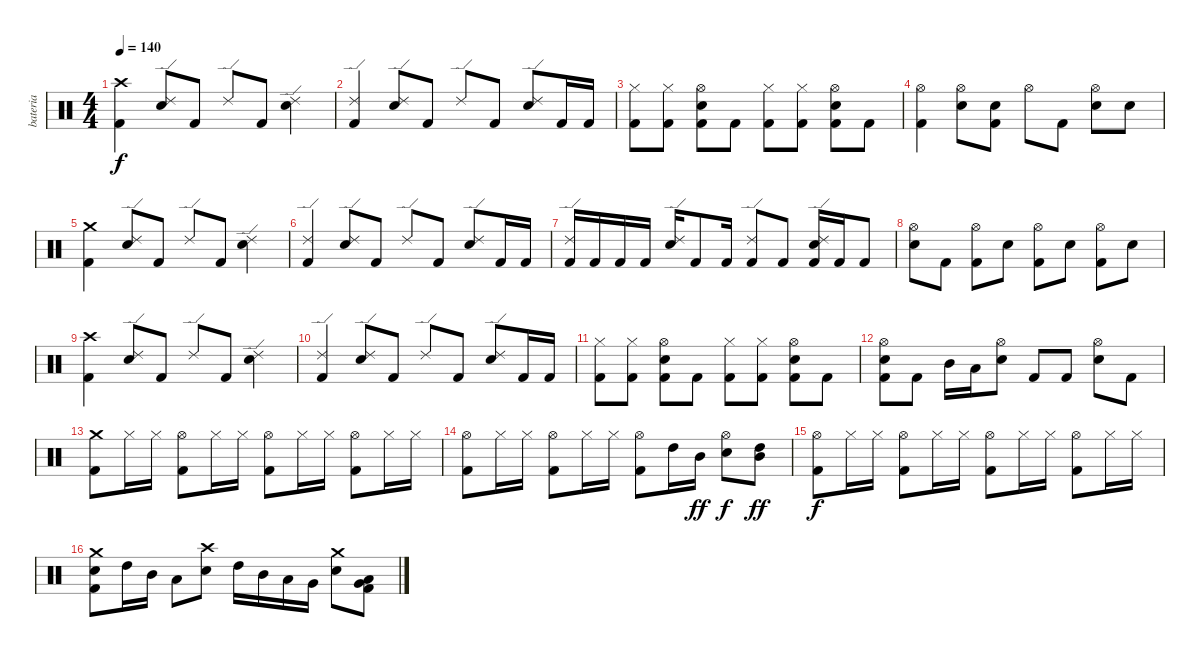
\track ("bateria" "bateria") {instrument percussion}
\staff {score}
\articulation defaults
\ts (4 4)
\tempo 140
\clef neutral
\ks c
("Crash high (hit)" "Kick (hit) 2").4{dy f} ("Ride (edge) 2" "Electric Snare (hit)").8 "Kick (hit) 2".8 "Ride (edge) 2".8 "Kick (hit) 2".8 ("Ride (edge) 2" "Electric Snare (hit)").4 |
("Ride (edge) 2" "Kick (hit) 2").4 ("Ride (edge) 2" "Electric Snare (hit)").8 "Kick (hit) 2".8 "Ride (edge) 2".8 "Kick (hit) 2".8 ("Ride (edge) 2" "Electric Snare (hit)").8 "Kick (hit) 2".16 "Kick (hit) 2".16 |
("Hi-Hat (closed)" "Kick (hit) 2").8 ("Hi-Hat (closed)" "Kick (hit) 2").8 ("Hi-Hat (open)" "Electric Snare (hit)" "Kick (hit) 2").8 "Kick (hit) 2".8 ("Hi-Hat (closed)" "Kick (hit) 2").8 ("Hi-Hat (closed)" "Kick (hit) 2").8 ("Hi-Hat (open)" "Electric Snare (hit)" "Kick (hit) 2").8 "Kick (hit) 2".8 |
("Hi-Hat (open)" "Kick (hit) 2").4 ("Hi-Hat (open)" "Electric Snare (hit)").8 ("Electric Snare (hit)" "Kick (hit) 2").8 "Hi-Hat (open)".8 "Kick (hit) 2".8 ("Hi-Hat (open)" "Electric Snare (hit)").8 "Electric Snare (hit)".8 |
("Crash medium (hit)" "Kick (hit) 2").4 ("Ride (edge) 2" "Electric Snare (hit)").8 "Kick (hit) 2".8 "Ride (edge) 2".8 "Kick (hit) 2".8 ("Ride (edge) 2" "Electric Snare (hit)").4 |
("Ride (edge) 2" "Kick (hit) 2").4 ("Ride (edge) 2" "Electric Snare (hit)").8 "Kick (hit) 2".8 "Ride (edge) 2".8 "Kick (hit) 2".8 ("Ride (edge) 2" "Electric Snare (hit)").8 "Kick (hit) 2".16 "Kick (hit) 2".16 |
("Ride (edge) 2" "Kick (hit) 2").16 "Kick (hit) 2".16 "Kick (hit) 2".16 "Kick (hit) 2".16 ("Ride (edge) 2" "Electric Snare (hit)").16 "Kick (hit) 2".8 "Kick (hit) 2".16 ("Ride (edge) 2" "Kick (hit) 2").8 "Kick (hit) 2".8 ("Ride (edge) 2" "Electric Snare (hit)" "Kick (hit) 2").16 "Kick (hit) 2".16 "Kick (hit) 2".8 |
("Hi-Hat (open)" "Electric Snare (hit)").8 "Kick (hit) 2".8 ("Hi-Hat (open)" "Kick (hit) 2").8 "Electric Snare (hit)".8 ("Hi-Hat (open)" "Kick (hit) 2").8 "Electric Snare (hit)".8 ("Hi-Hat (open)" "Kick (hit) 2").8 "Electric Snare (hit)".8 |
("Crash high (hit)" "Kick (hit) 2").4 ("Ride (edge) 2" "Electric Snare (hit)").8 "Kick (hit) 2".8 "Ride (edge) 2".8 "Kick (hit) 2".8 ("Ride (edge) 2" "Electric Snare (hit)").4 |
("Ride (edge) 2" "Kick (hit) 2").4 ("Ride (edge) 2" "Electric Snare (hit)").8 "Kick (hit) 2".8 "Ride (edge) 2".8 "Kick (hit) 2".8 ("Ride (edge) 2" "Electric Snare (hit)").8 "Kick (hit) 2".16 "Kick (hit) 2".16 |
("Hi-Hat (closed)" "Kick (hit) 2").8 ("Hi-Hat (closed)" "Kick (hit) 2").8 ("Hi-Hat (open)" "Electric Snare (hit)" "Kick (hit) 2").8 "Kick (hit) 2".8 ("Hi-Hat (closed)" "Kick (hit) 2").8 ("Hi-Hat (closed)" "Kick (hit) 2").8 ("Hi-Hat (open)" "Electric Snare (hit)" "Kick (hit) 2").8 "Kick (hit) 2".8 |
("Hi-Hat (open)" "Electric Snare (hit)" "Kick (hit) 2").8 "Kick (hit) 2".8 "Mid Tom (hit)".16 "Low Tom (hit)".16 ("Hi-Hat (open)" "Electric Snare (hit)").8 "Kick (hit) 2".8 "Kick (hit) 2".8 ("Hi-Hat (open)" "Electric Snare (hit)").8 "Kick (hit) 2".8 |
("Crash medium (hit)" "Kick (hit) 2").8 "Hi-Hat (closed)".16 "Hi-Hat (closed)".16 ("Hi-Hat (open)" "Kick (hit) 2").8 "Hi-Hat (closed)".16 "Hi-Hat (closed)".16 ("Hi-Hat (open)" "Kick (hit) 2").8 "Hi-Hat (closed)".16 "Hi-Hat (closed)".16 ("Hi-Hat (open)" "Kick (hit) 2").8 "Hi-Hat (closed)".16 "Hi-Hat (closed)".16 |
("Hi-Hat (open)" "Kick (hit) 2").8 "Hi-Hat (closed)".16 "Hi-Hat (closed)".16 ("Hi-Hat (open)" "Kick (hit) 2").8 "Hi-Hat (closed)".16 "Hi-Hat (closed)".16 ("Hi-Hat (open)" "Kick (hit) 2").8 "High Tom (hit)".16 "Mid Tom (hit)".16{dy ff} ("Hi-Hat (open)" "Electric Snare (hit)").8{dy f} ("High Tom (hit)" "Mid Tom (hit)").8{dy ff} |
("Hi-Hat (open)" "Kick (hit) 2").8{dy f} "Hi-Hat (closed)".16 "Hi-Hat (closed)".16 ("Hi-Hat (open)" "Kick (hit) 2").8 "Hi-Hat (closed)".16 "Hi-Hat (closed)".16 ("Hi-Hat (open)" "Kick (hit) 2").8 "Hi-Hat (closed)".16 "Hi-Hat (closed)".16 ("Hi-Hat (open)" "Kick (hit) 2").8 "Hi-Hat (closed)".16 "Hi-Hat (closed)".16 |
("Crash medium (hit)" "Electric Snare (hit)" "Kick (hit) 2").8 "High Tom (hit)".16 "Mid Tom (hit)".16 "Low Tom (hit)".8 ("Crash high (hit)" "Electric Snare (hit)").8 "High Tom (hit)".16 "Mid Tom (hit)".16 "Low Tom (hit)".16 "Very Low Tom (hit)".16 ("Crash medium (hit)" "Electric Snare (hit)").8 ("Very Low Tom (hit)" "Low Tom (hit)" "Kick (hit) 2").8
